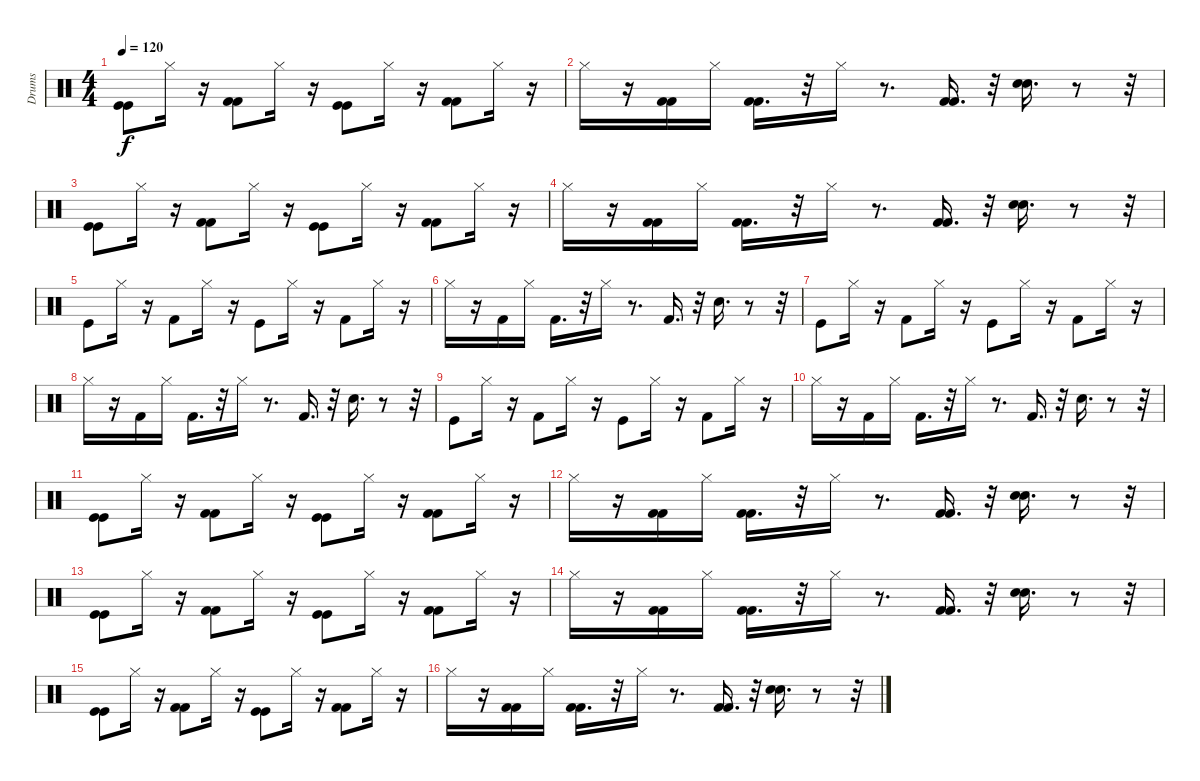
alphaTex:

\track ("Drums" "Drums") {instrument percussion}
\staff {score}
\articulation defaults
\ts (4 4)
\tempo 120
\clef neutral
\ks c
("Kick (hit)" "Kick (hit)").8{dy f} "Hi-Hat (closed)".16 r.16 ("Kick (hit) 2" "Kick (hit) 2").8 "Hi-Hat (closed)".16 r.16 ("Kick (hit)" "Kick (hit)").8 "Hi-Hat (closed)".16 r.16 ("Kick (hit) 2" "Kick (hit) 2").8 "Hi-Hat (closed)".16 r.16 |
"Hi-Hat (closed)".16 r.16 ("Kick (hit) 2" "Kick (hit) 2").16 "Hi-Hat (closed)".16 ("Kick (hit) 2" "Kick (hit) 2").16{d} r.32 "Hi-Hat (closed)".16 r.8{d} ("Kick (hit) 2" "Kick (hit) 2").16{d} r.32 ("Electric Snare (hit)" "Electric Snare (hit)").16{d} r.8 r.32 |
("Kick (hit)" "Kick (hit)").8 "Hi-Hat (closed)".16 r.16 ("Kick (hit) 2" "Kick (hit) 2").8 "Hi-Hat (closed)".16 r.16 ("Kick (hit)" "Kick (hit)").8 "Hi-Hat (closed)".16 r.16 ("Kick (hit) 2" "Kick (hit) 2").8 "Hi-Hat (closed)".16 r.16 |
"Hi-Hat (closed)".16 r.16 ("Kick (hit) 2" "Kick (hit) 2").16 "Hi-Hat (closed)".16 ("Kick (hit) 2" "Kick (hit) 2").16{d} r.32 "Hi-Hat (closed)".16 r.8{d} ("Kick (hit) 2" "Kick (hit) 2").16{d} r.32 ("Electric Snare (hit)" "Electric Snare (hit)").16{d} r.8 r.32 |
"Kick (hit)".8 "Hi-Hat (closed)".16 r.16 "Kick (hit) 2".8 "Hi-Hat (closed)".16 r.16 "Kick (hit)".8 "Hi-Hat (closed)".16 r.16 "Kick (hit) 2".8 "Hi-Hat (closed)".16 r.16 |
"Hi-Hat (closed)".16 r.16 "Kick (hit) 2".16 "Hi-Hat (closed)".16 "Kick (hit) 2".16{d} r.32 "Hi-Hat (closed)".16 r.8{d} "Kick (hit) 2".16{d} r.32 "Electric Snare (hit)".16{d} r.8 r.32 |
"Kick (hit)".8 "Hi-Hat (closed)".16 r.16 "Kick (hit) 2".8 "Hi-Hat (closed)".16 r.16 "Kick (hit)".8 "Hi-Hat (closed)".16 r.16 "Kick (hit) 2".8 "Hi-Hat (closed)".16 r.16 |
"Hi-Hat (closed)".16 r.16 "Kick (hit) 2".16 "Hi-Hat (closed)".16 "Kick (hit) 2".16{d} r.32 "Hi-Hat (closed)".16 r.8{d} "Kick (hit) 2".16{d} r.32 "Electric Snare (hit)".16{d} r.8 r.32 |
"Kick (hit)".8 "Hi-Hat (closed)".16 r.16 "Kick (hit) 2".8 "Hi-Hat (closed)".16 r.16 "Kick (hit)".8 "Hi-Hat (closed)".16 r.16 "Kick (hit) 2".8 "Hi-Hat (closed)".16 r.16 |
"Hi-Hat (closed)".16 r.16 "Kick (hit) 2".16 "Hi-Hat (closed)".16 "Kick (hit) 2".16{d} r.32 "Hi-Hat (closed)".16 r.8{d} "Kick (hit) 2".16{d} r.32 "Electric Snare (hit)".16{d} r.8 r.32 |
("Kick (hit)" "Kick (hit)").8 "Hi-Hat (closed)".16 r.16 ("Kick (hit) 2" "Kick (hit) 2").8 "Hi-Hat (closed)".16 r.16 ("Kick (hit)" "Kick (hit)").8 "Hi-Hat (closed)".16 r.16 ("Kick (hit) 2" "Kick (hit) 2").8 "Hi-Hat (closed)".16 r.16 |
"Hi-Hat (closed)".16 r.16 ("Kick (hit) 2" "Kick (hit) 2").16 "Hi-Hat (closed)".16 ("Kick (hit) 2" "Kick (hit) 2").16{d} r.32 "Hi-Hat (closed)".16 r.8{d} ("Kick (hit) 2" "Kick (hit) 2").16{d} r.32 ("Electric Snare (hit)" "Electric Snare (hit)").16{d} r.8 r.32 |
("Kick (hit)" "Kick (hit)").8 "Hi-Hat (closed)".16 r.16 ("Kick (hit) 2" "Kick (hit) 2").8 "Hi-Hat (closed)".16 r.16 ("Kick (hit)" "Kick (hit)").8 "Hi-Hat (closed)".16 r.16 ("Kick (hit) 2" "Kick (hit) 2").8 "Hi-Hat (closed)".16 r.16 |
"Hi-Hat (closed)".16 r.16 ("Kick (hit) 2" "Kick (hit) 2").16 "Hi-Hat (closed)".16 ("Kick (hit) 2" "Kick (hit) 2").16{d} r.32 "Hi-Hat (closed)".16 r.8{d} ("Kick (hit) 2" "Kick (hit) 2").16{d} r.32 ("Electric Snare (hit)" "Electric Snare (hit)").16{d} r.8 r.32 |
("Kick (hit)" "Kick (hit)").8 "Hi-Hat (closed)".16 r.16 ("Kick (hit) 2" "Kick (hit) 2").8 "Hi-Hat (closed)".16 r.16 ("Kick (hit)" "Kick (hit)").8 "Hi-Hat (closed)".16 r.16 ("Kick (hit) 2" "Kick (hit) 2").8 "Hi-Hat (closed)".16 r.16 |
"Hi-Hat (closed)".16 r.16 ("Kick (hit) 2" "Kick (hit) 2").16 "Hi-Hat (closed)".16 ("Kick (hit) 2" "Kick (hit) 2").16{d} r.32 "Hi-Hat (closed)".16 r.8{d} ("Kick (hit) 2" "Kick (hit) 2").16{d} r.32 ("Electric Snare (hit)" "Electric Snare (hit)").16{d} r.8 r.32
